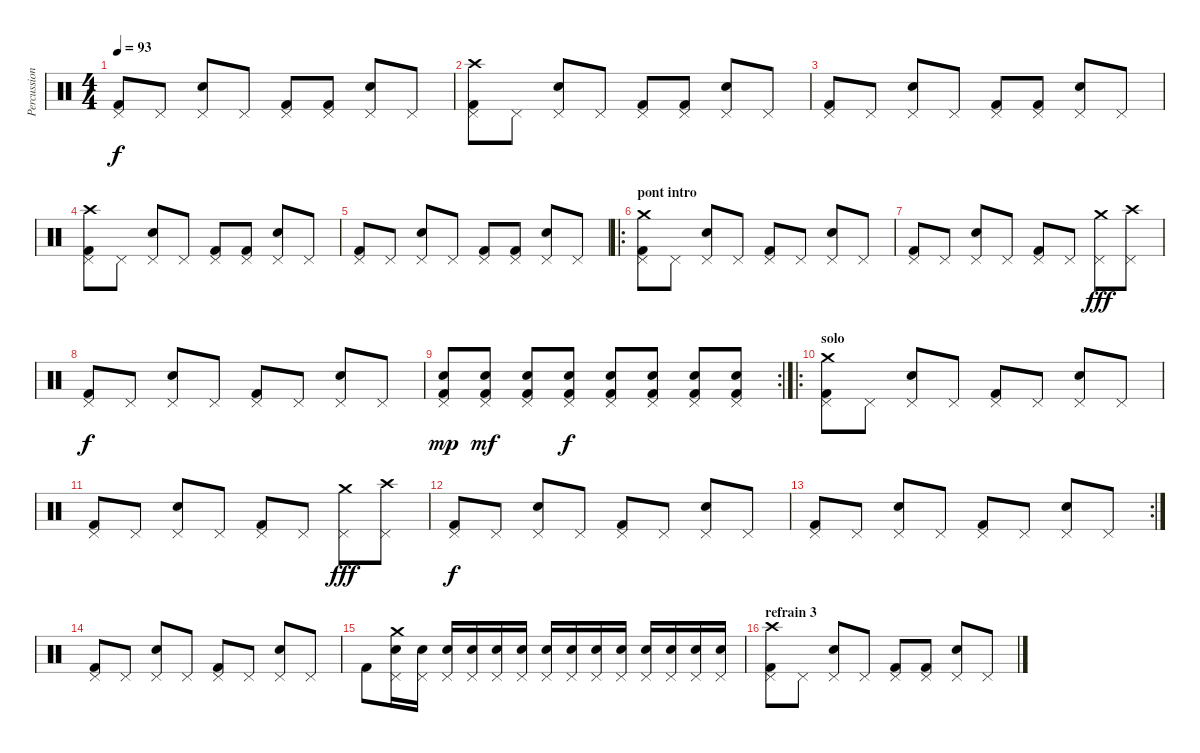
\track ("Percussions" "Percussion") {instrument percussion}
\staff {score}
\articulation defaults
\ts (4 4)
\tempo 93
\clef neutral
\ks c
("Pedal Hi-Hat (hit)" "Kick (hit) 2").8{dy f} "Pedal Hi-Hat (hit)".8 ("Pedal Hi-Hat (hit)" "Electric Snare (hit)").8 "Pedal Hi-Hat (hit)".8 ("Pedal Hi-Hat (hit)" "Kick (hit) 2").8 ("Pedal Hi-Hat (hit)" "Kick (hit) 2").8 ("Pedal Hi-Hat (hit)" "Electric Snare (hit)").8 "Pedal Hi-Hat (hit)".8 |
("Pedal Hi-Hat (hit)" "Crash high (hit)" "Kick (hit) 2").8 "Pedal Hi-Hat (hit)".8 ("Pedal Hi-Hat (hit)" "Electric Snare (hit)").8 "Pedal Hi-Hat (hit)".8 ("Pedal Hi-Hat (hit)" "Kick (hit) 2").8 ("Pedal Hi-Hat (hit)" "Kick (hit) 2").8 ("Pedal Hi-Hat (hit)" "Electric Snare (hit)").8 "Pedal Hi-Hat (hit)".8 |
("Pedal Hi-Hat (hit)" "Kick (hit) 2").8 "Pedal Hi-Hat (hit)".8 ("Pedal Hi-Hat (hit)" "Electric Snare (hit)").8 "Pedal Hi-Hat (hit)".8 ("Pedal Hi-Hat (hit)" "Kick (hit) 2").8 ("Pedal Hi-Hat (hit)" "Kick (hit) 2").8 ("Pedal Hi-Hat (hit)" "Electric Snare (hit)").8 "Pedal Hi-Hat (hit)".8 |
("Pedal Hi-Hat (hit)" "Crash high (hit)" "Kick (hit) 2").8 "Pedal Hi-Hat (hit)".8 ("Pedal Hi-Hat (hit)" "Electric Snare (hit)").8 "Pedal Hi-Hat (hit)".8 ("Pedal Hi-Hat (hit)" "Kick (hit) 2").8 ("Pedal Hi-Hat (hit)" "Kick (hit) 2").8 ("Pedal Hi-Hat (hit)" "Electric Snare (hit)").8 "Pedal Hi-Hat (hit)".8 |
("Pedal Hi-Hat (hit)" "Kick (hit) 2").8 "Pedal Hi-Hat (hit)".8 ("Pedal Hi-Hat (hit)" "Electric Snare (hit)").8 "Pedal Hi-Hat (hit)".8 ("Pedal Hi-Hat (hit)" "Kick (hit) 2").8 ("Pedal Hi-Hat (hit)" "Kick (hit) 2").8 ("Pedal Hi-Hat (hit)" "Electric Snare (hit)").8 "Pedal Hi-Hat (hit)".8 |
\ro
\section ("" "pont intro")
("Pedal Hi-Hat (hit)" "Crash medium (hit)" "Kick (hit) 2").8 "Pedal Hi-Hat (hit)".8 ("Pedal Hi-Hat (hit)" "Electric Snare (hit)").8 "Pedal Hi-Hat (hit)".8 ("Pedal Hi-Hat (hit)" "Kick (hit) 2").8 "Pedal Hi-Hat (hit)".8 ("Pedal Hi-Hat (hit)" "Electric Snare (hit)").8 "Pedal Hi-Hat (hit)".8 |
("Pedal Hi-Hat (hit)" "Kick (hit) 2").8 "Pedal Hi-Hat (hit)".8 ("Pedal Hi-Hat (hit)" "Electric Snare (hit)").8 "Pedal Hi-Hat (hit)".8 ("Pedal Hi-Hat (hit)" "Kick (hit) 2").8 "Pedal Hi-Hat (hit)".8 ("Pedal Hi-Hat (hit)" "Crash medium (hit)").8{dy fff} ("Pedal Hi-Hat (hit)" "Crash high (hit)").8 |
("Pedal Hi-Hat (hit)" "Kick (hit) 2").8{dy f} "Pedal Hi-Hat (hit)".8 ("Pedal Hi-Hat (hit)" "Electric Snare (hit)").8 "Pedal Hi-Hat (hit)".8 ("Pedal Hi-Hat (hit)" "Kick (hit) 2").8 "Pedal Hi-Hat (hit)".8 ("Pedal Hi-Hat (hit)" "Electric Snare (hit)").8 "Pedal Hi-Hat (hit)".8 |
\rc 2
("Pedal Hi-Hat (hit)" "Electric Snare (hit)" "Kick (hit) 2").8{dy mp} ("Pedal Hi-Hat (hit)" "Electric Snare (hit)" "Kick (hit) 2").8{dy mf} ("Pedal Hi-Hat (hit)" "Electric Snare (hit)" "Kick (hit) 2").8 ("Pedal Hi-Hat (hit)" "Electric Snare (hit)" "Kick (hit) 2").8{dy f} ("Pedal Hi-Hat (hit)" "Electric Snare (hit)" "Kick (hit) 2").8 ("Pedal Hi-Hat (hit)" "Electric Snare (hit)" "Kick (hit) 2").8 ("Pedal Hi-Hat (hit)" "Electric Snare (hit)" "Kick (hit) 2").8 ("Pedal Hi-Hat (hit)" "Electric Snare (hit)" "Kick (hit) 2").8 |
\ro
\section ("" "solo")
("Pedal Hi-Hat (hit)" "Crash medium (hit)" "Kick (hit) 2").8 "Pedal Hi-Hat (hit)".8 ("Pedal Hi-Hat (hit)" "Electric Snare (hit)").8 "Pedal Hi-Hat (hit)".8 ("Pedal Hi-Hat (hit)" "Kick (hit) 2").8 "Pedal Hi-Hat (hit)".8 ("Pedal Hi-Hat (hit)" "Electric Snare (hit)").8 "Pedal Hi-Hat (hit)".8 |
("Pedal Hi-Hat (hit)" "Kick (hit) 2").8 "Pedal Hi-Hat (hit)".8 ("Pedal Hi-Hat (hit)" "Electric Snare (hit)").8 "Pedal Hi-Hat (hit)".8 ("Pedal Hi-Hat (hit)" "Kick (hit) 2").8 "Pedal Hi-Hat (hit)".8 ("Pedal Hi-Hat (hit)" "Crash medium (hit)").8{dy fff} ("Pedal Hi-Hat (hit)" "Crash high (hit)").8 |
("Pedal Hi-Hat (hit)" "Kick (hit) 2").8{dy f} "Pedal Hi-Hat (hit)".8 ("Pedal Hi-Hat (hit)" "Electric Snare (hit)").8 "Pedal Hi-Hat (hit)".8 ("Pedal Hi-Hat (hit)" "Kick (hit) 2").8 "Pedal Hi-Hat (hit)".8 ("Pedal Hi-Hat (hit)" "Electric Snare (hit)").8 "Pedal Hi-Hat (hit)".8 |
\rc 2
("Pedal Hi-Hat (hit)" "Kick (hit) 2").8 "Pedal Hi-Hat (hit)".8 ("Pedal Hi-Hat (hit)" "Electric Snare (hit)").8 "Pedal Hi-Hat (hit)".8 ("Pedal Hi-Hat (hit)" "Kick (hit) 2").8 "Pedal Hi-Hat (hit)".8 ("Pedal Hi-Hat (hit)" "Electric Snare (hit)").8 "Pedal Hi-Hat (hit)".8 |
("Pedal Hi-Hat (hit)" "Kick (hit) 2").8 "Pedal Hi-Hat (hit)".8 ("Pedal Hi-Hat (hit)" "Electric Snare (hit)").8 "Pedal Hi-Hat (hit)".8 ("Pedal Hi-Hat (hit)" "Kick (hit) 2").8 "Pedal Hi-Hat (hit)".8 ("Pedal Hi-Hat (hit)" "Electric Snare (hit)").8 "Pedal Hi-Hat (hit)".8 |
"Kick (hit) 2".8 ("Pedal Hi-Hat (hit)" "Electric Snare (hit)" "Crash medium (hit)").16 ("Pedal Hi-Hat (hit)" "Electric Snare (hit)").16 ("Pedal Hi-Hat (hit)" "Electric Snare (hit)").16 ("Pedal Hi-Hat (hit)" "Electric Snare (hit)").16 ("Pedal Hi-Hat (hit)" "Electric Snare (hit)").16 ("Pedal Hi-Hat (hit)" "Electric Snare (hit)").16 ("Pedal Hi-Hat (hit)" "Electric Snare (hit)").16 ("Pedal Hi-Hat (hit)" "Electric Snare (hit)").16 ("Pedal Hi-Hat (hit)" "Electric Snare (hit)").16 ("Pedal Hi-Hat (hit)" "Electric Snare (hit)").16 ("Pedal Hi-Hat (hit)" "Electric Snare (hit)").16 ("Pedal Hi-Hat (hit)" "Electric Snare (hit)").16 ("Pedal Hi-Hat (hit)" "Electric Snare (hit)").16 ("Pedal Hi-Hat (hit)" "Electric Snare (hit)").16 |
\section ("" "refrain 3")
("Pedal Hi-Hat (hit)" "Crash high (hit)" "Kick (hit) 2").8 "Pedal Hi-Hat (hit)".8 ("Pedal Hi-Hat (hit)" "Electric Snare (hit)").8 "Pedal Hi-Hat (hit)".8 ("Pedal Hi-Hat (hit)" "Kick (hit) 2").8 ("Pedal Hi-Hat (hit)" "Kick (hit) 2").8 ("Pedal Hi-Hat (hit)" "Electric Snare (hit)").8 "Pedal Hi-Hat (hit)".8
